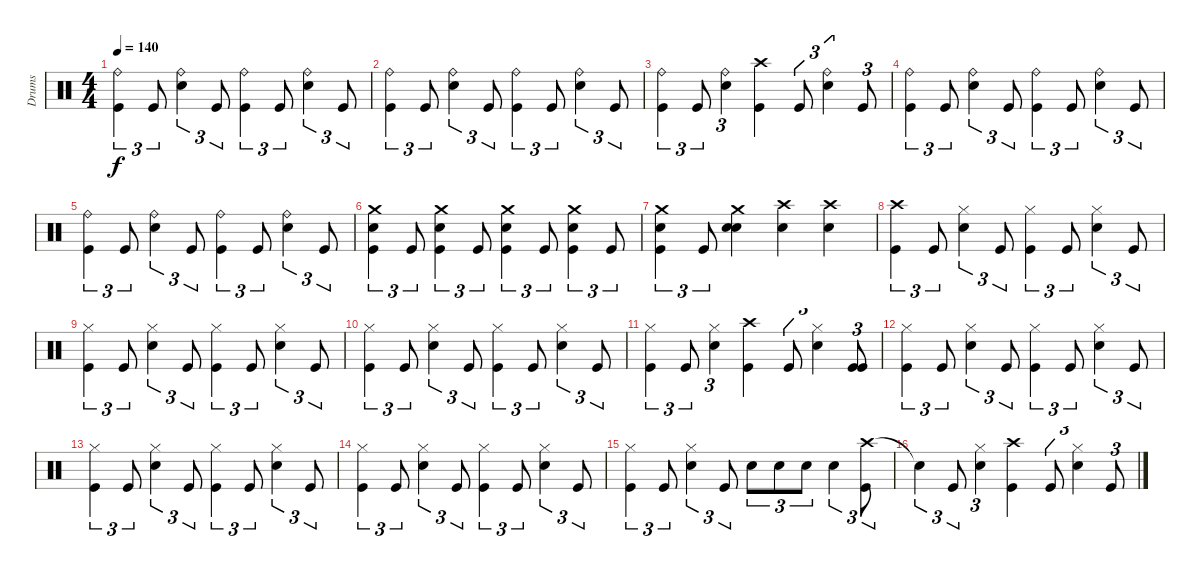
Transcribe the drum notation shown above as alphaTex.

\track ("Drums" "Drums") {instrument percussion}
\staff {score}
\articulation defaults
\ts (4 4)
\tempo 140
\clef neutral
\ks c
("Ride (bell)" "Kick (hit)").4{tu (3 2) dy f} "Kick (hit)".8{tu (3 2)} ("Ride (bell)" "Snare (hit) 2").4{tu (3 2)} "Kick (hit)".8{tu (3 2)} ("Ride (bell)" "Kick (hit)").4{tu (3 2)} "Kick (hit)".8{tu (3 2)} ("Ride (bell)" "Snare (hit) 2").4{tu (3 2)} "Kick (hit)".8{tu (3 2)} |
("Ride (bell)" "Kick (hit)").4{tu (3 2)} "Kick (hit)".8{tu (3 2)} ("Ride (bell)" "Snare (hit) 2").4{tu (3 2)} "Kick (hit)".8{tu (3 2)} ("Ride (bell)" "Kick (hit)").4{tu (3 2)} "Kick (hit)".8{tu (3 2)} ("Ride (bell)" "Snare (hit) 2").4{tu (3 2)} "Kick (hit)".8{tu (3 2)} |
("Ride (bell)" "Kick (hit)").4{tu (3 2)} "Kick (hit)".8{tu (3 2)} ("Ride (bell)" "Snare (hit) 2").4{tu (3 2)} ("Crash high (hit)" "Kick (hit)").4 "Kick (hit)".8{tu (3 2)} ("Ride (bell)" "Snare (hit) 2").4{tu (3 2)} "Kick (hit)".8{tu (3 2)} |
("Ride (bell)" "Kick (hit)").4{tu (3 2)} "Kick (hit)".8{tu (3 2)} ("Ride (bell)" "Snare (hit) 2").4{tu (3 2)} "Kick (hit)".8{tu (3 2)} ("Ride (bell)" "Kick (hit)").4{tu (3 2)} "Kick (hit)".8{tu (3 2)} ("Ride (bell)" "Snare (hit) 2").4{tu (3 2)} "Kick (hit)".8{tu (3 2)} |
("Ride (bell)" "Kick (hit)").4{tu (3 2)} "Kick (hit)".8{tu (3 2)} ("Ride (bell)" "Snare (hit) 2").4{tu (3 2)} "Kick (hit)".8{tu (3 2)} ("Ride (bell)" "Kick (hit)").4{tu (3 2)} "Kick (hit)".8{tu (3 2)} ("Ride (bell)" "Snare (hit) 2").4{tu (3 2)} "Kick (hit)".8{tu (3 2)} |
("Crash medium (hit)" "Snare (hit) 2" "Kick (hit)").4{tu (3 2)} "Kick (hit)".8{tu (3 2)} ("Crash medium (hit)" "Snare (hit) 2" "Kick (hit)").4{tu (3 2)} "Kick (hit)".8{tu (3 2)} ("Crash medium (hit)" "Snare (hit) 2" "Kick (hit)").4{tu (3 2)} "Kick (hit)".8{tu (3 2)} ("Crash medium (hit)" "Snare (hit) 2" "Kick (hit)").4{tu (3 2)} "Kick (hit)".8{tu (3 2)} |
("Crash medium (hit)" "Snare (hit) 2" "Kick (hit)").4{tu (3 2)} "Kick (hit)".8{tu (3 2)} ("Crash medium (hit)" "Snare (hit) 2" "Snare (hit) 2").4 ("Crash high (hit)" "Snare (hit) 2").4 ("Crash high (hit)" "Snare (hit) 2").4 |
("Crash high (hit)" "Kick (hit)").4{tu (3 2)} "Kick (hit)".8{tu (3 2)} ("Hi-Hat (closed)" "Snare (hit) 2").4{tu (3 2)} "Kick (hit)".8{tu (3 2)} ("Hi-Hat (closed)" "Kick (hit)").4{tu (3 2)} "Kick (hit)".8{tu (3 2)} ("Hi-Hat (closed)" "Snare (hit) 2").4{tu (3 2)} "Kick (hit)".8{tu (3 2)} |
("Hi-Hat (closed)" "Kick (hit)").4{tu (3 2)} "Kick (hit)".8{tu (3 2)} ("Hi-Hat (closed)" "Snare (hit) 2").4{tu (3 2)} "Kick (hit)".8{tu (3 2)} ("Hi-Hat (closed)" "Kick (hit)").4{tu (3 2)} "Kick (hit)".8{tu (3 2)} ("Hi-Hat (closed)" "Snare (hit) 2").4{tu (3 2)} "Kick (hit)".8{tu (3 2)} |
("Hi-Hat (closed)" "Kick (hit)").4{tu (3 2)} "Kick (hit)".8{tu (3 2)} ("Hi-Hat (closed)" "Snare (hit) 2").4{tu (3 2)} "Kick (hit)".8{tu (3 2)} ("Hi-Hat (closed)" "Kick (hit)").4{tu (3 2)} "Kick (hit)".8{tu (3 2)} ("Hi-Hat (closed)" "Snare (hit) 2").4{tu (3 2)} "Kick (hit)".8{tu (3 2)} |
("Hi-Hat (closed)" "Kick (hit)").4{tu (3 2)} "Kick (hit)".8{tu (3 2)} ("Hi-Hat (closed)" "Snare (hit) 2").4{tu (3 2)} ("Crash high (hit)" "Kick (hit)").4 "Kick (hit)".8{tu (3 2)} ("Hi-Hat (closed)" "Snare (hit) 2").4{tu (3 2)} ("Kick (hit)" "Kick (hit)").8{tu (3 2)} |
("Hi-Hat (closed)" "Kick (hit)").4{tu (3 2)} "Kick (hit)".8{tu (3 2)} ("Hi-Hat (closed)" "Snare (hit) 2").4{tu (3 2)} "Kick (hit)".8{tu (3 2)} ("Hi-Hat (closed)" "Kick (hit)").4{tu (3 2)} "Kick (hit)".8{tu (3 2)} ("Hi-Hat (closed)" "Snare (hit) 2").4{tu (3 2)} "Kick (hit)".8{tu (3 2)} |
("Hi-Hat (closed)" "Kick (hit)").4{tu (3 2)} "Kick (hit)".8{tu (3 2)} ("Hi-Hat (closed)" "Snare (hit) 2").4{tu (3 2)} "Kick (hit)".8{tu (3 2)} ("Hi-Hat (closed)" "Kick (hit)").4{tu (3 2)} "Kick (hit)".8{tu (3 2)} ("Hi-Hat (closed)" "Snare (hit) 2").4{tu (3 2)} "Kick (hit)".8{tu (3 2)} |
("Hi-Hat (closed)" "Kick (hit)").4{tu (3 2)} "Kick (hit)".8{tu (3 2)} ("Hi-Hat (closed)" "Snare (hit) 2").4{tu (3 2)} "Kick (hit)".8{tu (3 2)} ("Hi-Hat (closed)" "Kick (hit)").4{tu (3 2)} "Kick (hit)".8{tu (3 2)} ("Hi-Hat (closed)" "Snare (hit) 2").4{tu (3 2)} "Kick (hit)".8{tu (3 2)} |
("Hi-Hat (closed)" "Kick (hit)").4{tu (3 2)} "Kick (hit)".8{tu (3 2)} ("Hi-Hat (closed)" "Snare (hit) 2").4{tu (3 2)} "Kick (hit)".8{tu (3 2)} "Snare (hit) 2".8{tu (3 2)} "Snare (hit) 2".8{tu (3 2)} "Snare (hit) 2".8{tu (3 2)} "Snare (hit) 2".4{tu (3 2)} ("Crash high (hit)" "Kick (hit)").8{tu (3 2)} |
"Snare (hit)"{t}.4{tu (3 2)} "Kick (hit)".8{tu (3 2)} ("Hi-Hat (closed)" "Snare (hit) 2").4{tu (3 2)} ("Crash high (hit)" "Kick (hit)").4 "Kick (hit)".8{tu (3 2)} ("Hi-Hat (closed)" "Snare (hit) 2").4{tu (3 2)} "Kick (hit)".8{tu (3 2)}
